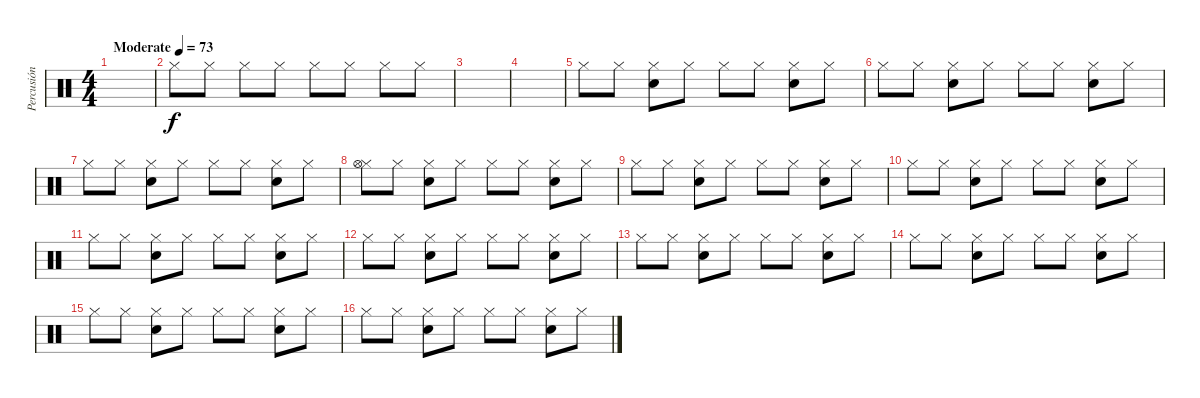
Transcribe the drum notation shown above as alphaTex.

\track ("Percusión" "Percusión") {instrument percussion}
\staff {score}
\articulation defaults
\ts (4 4)
\tempo (73 "Moderate")
\clef neutral
\ks c
|
"Hi-Hat (closed)".8 "Hi-Hat (closed)".8 "Hi-Hat (closed)".8 "Hi-Hat (closed)".8 "Hi-Hat (closed)".8 "Hi-Hat (closed)".8 "Hi-Hat (closed)".8 "Hi-Hat (closed)".8 |
|
|
"Hi-Hat (closed)".8 "Hi-Hat (closed)".8 ("Hi-Hat (closed)" "Snare (hit) 2").8 "Hi-Hat (closed)".8 "Hi-Hat (closed)".8 "Hi-Hat (closed)".8 ("Hi-Hat (closed)" "Snare (hit) 2").8 "Hi-Hat (closed)".8 |
"Hi-Hat (closed)".8 "Hi-Hat (closed)".8 ("Hi-Hat (closed)" "Snare (hit) 2").8 "Hi-Hat (closed)".8 "Hi-Hat (closed)".8 "Hi-Hat (closed)".8 ("Hi-Hat (closed)" "Snare (hit) 2").8 "Hi-Hat (closed)".8 |
"Hi-Hat (closed)".8 "Hi-Hat (closed)".8 ("Hi-Hat (closed)" "Snare (hit) 2").8 "Hi-Hat (closed)".8 "Hi-Hat (closed)".8 "Hi-Hat (closed)".8 ("Hi-Hat (closed)" "Snare (hit) 2").8 "Hi-Hat (closed)".8 |
("Hi-Hat (closed)" "Hi-Hat (open)").8 "Hi-Hat (closed)".8 ("Hi-Hat (closed)" "Snare (hit) 2").8 "Hi-Hat (closed)".8 "Hi-Hat (closed)".8 "Hi-Hat (closed)".8 ("Hi-Hat (closed)" "Snare (hit) 2").8 "Hi-Hat (closed)".8 |
"Hi-Hat (closed)".8 "Hi-Hat (closed)".8 ("Hi-Hat (closed)" "Snare (hit) 2").8 "Hi-Hat (closed)".8 "Hi-Hat (closed)".8 "Hi-Hat (closed)".8 ("Hi-Hat (closed)" "Snare (hit) 2").8 "Hi-Hat (closed)".8 |
"Hi-Hat (closed)".8 "Hi-Hat (closed)".8 ("Hi-Hat (closed)" "Snare (hit) 2").8 "Hi-Hat (closed)".8 "Hi-Hat (closed)".8 "Hi-Hat (closed)".8 ("Hi-Hat (closed)" "Snare (hit) 2").8 "Hi-Hat (closed)".8 |
"Hi-Hat (closed)".8 "Hi-Hat (closed)".8 ("Hi-Hat (closed)" "Snare (hit) 2").8 "Hi-Hat (closed)".8 "Hi-Hat (closed)".8 "Hi-Hat (closed)".8 ("Hi-Hat (closed)" "Snare (hit) 2").8 "Hi-Hat (closed)".8 |
"Hi-Hat (closed)".8 "Hi-Hat (closed)".8 ("Hi-Hat (closed)" "Snare (hit) 2").8 "Hi-Hat (closed)".8 "Hi-Hat (closed)".8 "Hi-Hat (closed)".8 ("Hi-Hat (closed)" "Snare (hit) 2").8 "Hi-Hat (closed)".8 |
"Hi-Hat (closed)".8 "Hi-Hat (closed)".8 ("Hi-Hat (closed)" "Snare (hit) 2").8 "Hi-Hat (closed)".8 "Hi-Hat (closed)".8 "Hi-Hat (closed)".8 ("Hi-Hat (closed)" "Snare (hit) 2").8 "Hi-Hat (closed)".8 |
"Hi-Hat (closed)".8 "Hi-Hat (closed)".8 ("Hi-Hat (closed)" "Snare (hit) 2").8 "Hi-Hat (closed)".8 "Hi-Hat (closed)".8 "Hi-Hat (closed)".8 ("Hi-Hat (closed)" "Snare (hit) 2").8 "Hi-Hat (closed)".8 |
"Hi-Hat (closed)".8 "Hi-Hat (closed)".8 ("Hi-Hat (closed)" "Snare (hit) 2").8 "Hi-Hat (closed)".8 "Hi-Hat (closed)".8 "Hi-Hat (closed)".8 ("Hi-Hat (closed)" "Snare (hit) 2").8 "Hi-Hat (closed)".8 |
"Hi-Hat (closed)".8 "Hi-Hat (closed)".8 ("Hi-Hat (closed)" "Snare (hit) 2").8 "Hi-Hat (closed)".8 "Hi-Hat (closed)".8 "Hi-Hat (closed)".8 ("Hi-Hat (closed)" "Snare (hit) 2").8 "Hi-Hat (closed)".8
